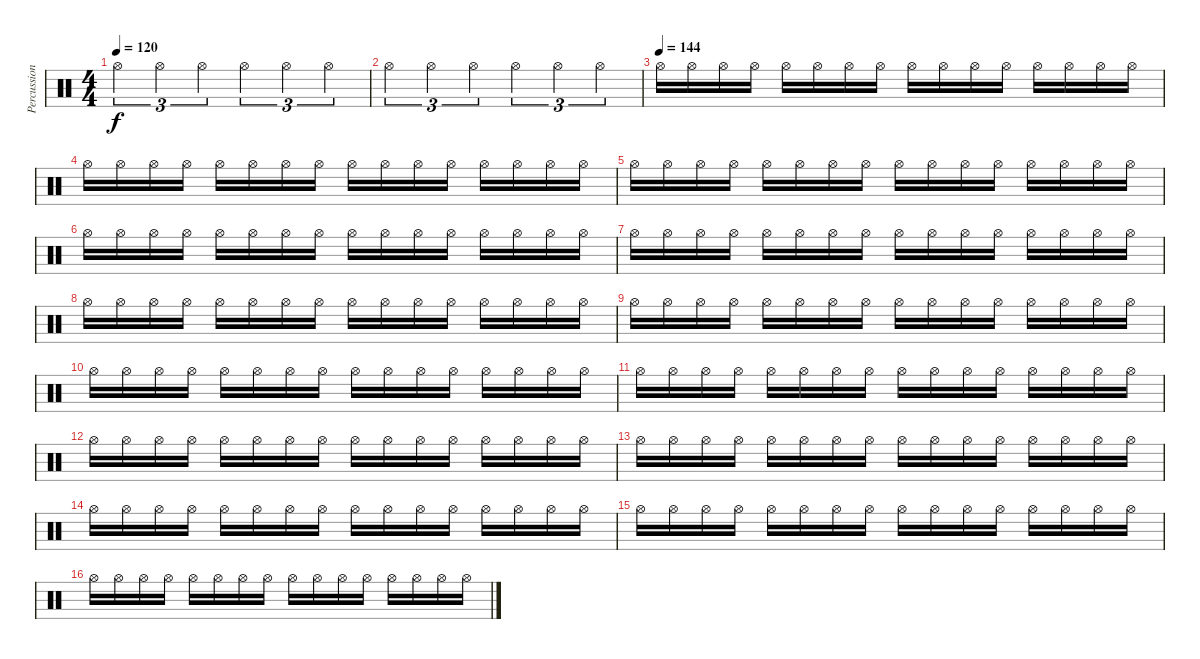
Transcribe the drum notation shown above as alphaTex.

\track ("Percussion" "Percussion") {instrument percussion}
\staff {score}
\articulation defaults
\ts (4 4)
\tempo 120
\clef neutral
\ks c "Hi-Hat (open)".4{tu (3 2) dy f} "Hi-Hat (open)".4{tu (3 2)} "Hi-Hat (open)".4{tu (3 2)} "Hi-Hat (open)".4{tu (3 2)} "Hi-Hat (open)".4{tu (3 2)} "Hi-Hat (open)".4{tu (3 2)}
|
"Hi-Hat (open)".4{tu (3 2)} "Hi-Hat (open)".4{tu (3 2)} "Hi-Hat (open)".4{tu (3 2)} "Hi-Hat (open)".4{tu (3 2)} "Hi-Hat (open)".4{tu (3 2)} "Hi-Hat (open)".4{tu (3 2)} |
\tempo (144)
"Hi-Hat (open)".16 "Hi-Hat (open)".16 "Hi-Hat (open)".16 "Hi-Hat (open)".16 "Hi-Hat (open)".16 "Hi-Hat (open)".16 "Hi-Hat (open)".16 "Hi-Hat (open)".16 "Hi-Hat (open)".16 "Hi-Hat (open)".16 "Hi-Hat (open)".16 "Hi-Hat (open)".16 "Hi-Hat (open)".16 "Hi-Hat (open)".16 "Hi-Hat (open)".16 "Hi-Hat (open)".16 |
"Hi-Hat (open)".16 "Hi-Hat (open)".16 "Hi-Hat (open)".16 "Hi-Hat (open)".16 "Hi-Hat (open)".16 "Hi-Hat (open)".16 "Hi-Hat (open)".16 "Hi-Hat (open)".16 "Hi-Hat (open)".16 "Hi-Hat (open)".16 "Hi-Hat (open)".16 "Hi-Hat (open)".16 "Hi-Hat (open)".16 "Hi-Hat (open)".16 "Hi-Hat (open)".16 "Hi-Hat (open)".16 |
"Hi-Hat (open)".16 "Hi-Hat (open)".16 "Hi-Hat (open)".16 "Hi-Hat (open)".16 "Hi-Hat (open)".16 "Hi-Hat (open)".16 "Hi-Hat (open)".16 "Hi-Hat (open)".16 "Hi-Hat (open)".16 "Hi-Hat (open)".16 "Hi-Hat (open)".16 "Hi-Hat (open)".16 "Hi-Hat (open)".16 "Hi-Hat (open)".16 "Hi-Hat (open)".16 "Hi-Hat (open)".16 |
"Hi-Hat (open)".16 "Hi-Hat (open)".16 "Hi-Hat (open)".16 "Hi-Hat (open)".16 "Hi-Hat (open)".16 "Hi-Hat (open)".16 "Hi-Hat (open)".16 "Hi-Hat (open)".16 "Hi-Hat (open)".16 "Hi-Hat (open)".16 "Hi-Hat (open)".16 "Hi-Hat (open)".16 "Hi-Hat (open)".16 "Hi-Hat (open)".16 "Hi-Hat (open)".16 "Hi-Hat (open)".16 |
"Hi-Hat (open)".16 "Hi-Hat (open)".16 "Hi-Hat (open)".16 "Hi-Hat (open)".16 "Hi-Hat (open)".16 "Hi-Hat (open)".16 "Hi-Hat (open)".16 "Hi-Hat (open)".16 "Hi-Hat (open)".16 "Hi-Hat (open)".16 "Hi-Hat (open)".16 "Hi-Hat (open)".16 "Hi-Hat (open)".16 "Hi-Hat (open)".16 "Hi-Hat (open)".16 "Hi-Hat (open)".16 |
"Hi-Hat (open)".16 "Hi-Hat (open)".16 "Hi-Hat (open)".16 "Hi-Hat (open)".16 "Hi-Hat (open)".16 "Hi-Hat (open)".16 "Hi-Hat (open)".16 "Hi-Hat (open)".16 "Hi-Hat (open)".16 "Hi-Hat (open)".16 "Hi-Hat (open)".16 "Hi-Hat (open)".16 "Hi-Hat (open)".16 "Hi-Hat (open)".16 "Hi-Hat (open)".16 "Hi-Hat (open)".16 |
"Hi-Hat (open)".16 "Hi-Hat (open)".16 "Hi-Hat (open)".16 "Hi-Hat (open)".16 "Hi-Hat (open)".16 "Hi-Hat (open)".16 "Hi-Hat (open)".16 "Hi-Hat (open)".16 "Hi-Hat (open)".16 "Hi-Hat (open)".16 "Hi-Hat (open)".16 "Hi-Hat (open)".16 "Hi-Hat (open)".16 "Hi-Hat (open)".16 "Hi-Hat (open)".16 "Hi-Hat (open)".16 |
"Hi-Hat (open)".16 "Hi-Hat (open)".16 "Hi-Hat (open)".16 "Hi-Hat (open)".16 "Hi-Hat (open)".16 "Hi-Hat (open)".16 "Hi-Hat (open)".16 "Hi-Hat (open)".16 "Hi-Hat (open)".16 "Hi-Hat (open)".16 "Hi-Hat (open)".16 "Hi-Hat (open)".16 "Hi-Hat (open)".16 "Hi-Hat (open)".16 "Hi-Hat (open)".16 "Hi-Hat (open)".16 |
"Hi-Hat (open)".16 "Hi-Hat (open)".16 "Hi-Hat (open)".16 "Hi-Hat (open)".16 "Hi-Hat (open)".16 "Hi-Hat (open)".16 "Hi-Hat (open)".16 "Hi-Hat (open)".16 "Hi-Hat (open)".16 "Hi-Hat (open)".16 "Hi-Hat (open)".16 "Hi-Hat (open)".16 "Hi-Hat (open)".16 "Hi-Hat (open)".16 "Hi-Hat (open)".16 "Hi-Hat (open)".16 |
"Hi-Hat (open)".16 "Hi-Hat (open)".16 "Hi-Hat (open)".16 "Hi-Hat (open)".16 "Hi-Hat (open)".16 "Hi-Hat (open)".16 "Hi-Hat (open)".16 "Hi-Hat (open)".16 "Hi-Hat (open)".16 "Hi-Hat (open)".16 "Hi-Hat (open)".16 "Hi-Hat (open)".16 "Hi-Hat (open)".16 "Hi-Hat (open)".16 "Hi-Hat (open)".16 "Hi-Hat (open)".16 |
"Hi-Hat (open)".16 "Hi-Hat (open)".16 "Hi-Hat (open)".16 "Hi-Hat (open)".16 "Hi-Hat (open)".16 "Hi-Hat (open)".16 "Hi-Hat (open)".16 "Hi-Hat (open)".16 "Hi-Hat (open)".16 "Hi-Hat (open)".16 "Hi-Hat (open)".16 "Hi-Hat (open)".16 "Hi-Hat (open)".16 "Hi-Hat (open)".16 "Hi-Hat (open)".16 "Hi-Hat (open)".16 |
"Hi-Hat (open)".16 "Hi-Hat (open)".16 "Hi-Hat (open)".16 "Hi-Hat (open)".16 "Hi-Hat (open)".16 "Hi-Hat (open)".16 "Hi-Hat (open)".16 "Hi-Hat (open)".16 "Hi-Hat (open)".16 "Hi-Hat (open)".16 "Hi-Hat (open)".16 "Hi-Hat (open)".16 "Hi-Hat (open)".16 "Hi-Hat (open)".16 "Hi-Hat (open)".16 "Hi-Hat (open)".16 |
"Hi-Hat (open)".16 "Hi-Hat (open)".16 "Hi-Hat (open)".16 "Hi-Hat (open)".16 "Hi-Hat (open)".16 "Hi-Hat (open)".16 "Hi-Hat (open)".16 "Hi-Hat (open)".16 "Hi-Hat (open)".16 "Hi-Hat (open)".16 "Hi-Hat (open)".16 "Hi-Hat (open)".16 "Hi-Hat (open)".16 "Hi-Hat (open)".16 "Hi-Hat (open)".16 "Hi-Hat (open)".16 |
"Hi-Hat (open)".16 "Hi-Hat (open)".16 "Hi-Hat (open)".16 "Hi-Hat (open)".16 "Hi-Hat (open)".16 "Hi-Hat (open)".16 "Hi-Hat (open)".16 "Hi-Hat (open)".16 "Hi-Hat (open)".16 "Hi-Hat (open)".16 "Hi-Hat (open)".16 "Hi-Hat (open)".16 "Hi-Hat (open)".16 "Hi-Hat (open)".16 "Hi-Hat (open)".16 "Hi-Hat (open)".16
